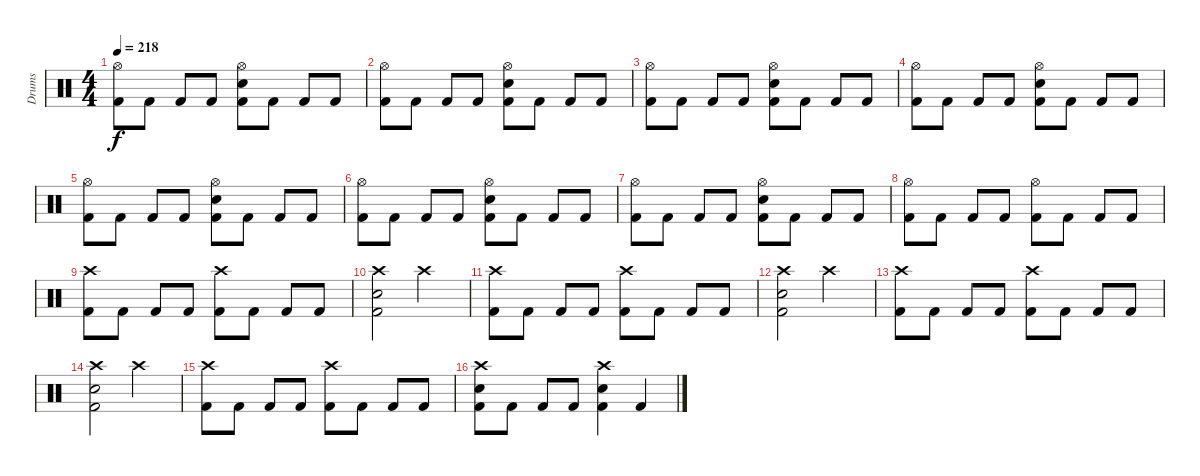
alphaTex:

\track ("Drums" "Drums") {instrument percussion}
\staff {score}
\articulation defaults
\ts (4 4)
\tempo 218
\clef neutral
\ks c
("Hi-Hat (open)" "Kick (hit) 2").8{dy f} "Kick (hit) 2".8 "Kick (hit) 2".8 "Kick (hit) 2".8 ("Hi-Hat (open)" "Electric Snare (hit)" "Kick (hit) 2").8 "Kick (hit) 2".8 "Kick (hit) 2".8 "Kick (hit) 2".8 |
("Hi-Hat (open)" "Kick (hit) 2").8 "Kick (hit) 2".8 "Kick (hit) 2".8 "Kick (hit) 2".8 ("Hi-Hat (open)" "Electric Snare (hit)" "Kick (hit) 2").8 "Kick (hit) 2".8 "Kick (hit) 2".8 "Kick (hit) 2".8 |
("Hi-Hat (open)" "Kick (hit) 2").8 "Kick (hit) 2".8 "Kick (hit) 2".8 "Kick (hit) 2".8 ("Hi-Hat (open)" "Electric Snare (hit)" "Kick (hit) 2").8 "Kick (hit) 2".8 "Kick (hit) 2".8 "Kick (hit) 2".8 |
("Hi-Hat (open)" "Kick (hit) 2").8 "Kick (hit) 2".8 "Kick (hit) 2".8 "Kick (hit) 2".8 ("Hi-Hat (open)" "Electric Snare (hit)" "Kick (hit) 2").8 "Kick (hit) 2".8 "Kick (hit) 2".8 "Kick (hit) 2".8 |
("Hi-Hat (open)" "Kick (hit) 2").8 "Kick (hit) 2".8 "Kick (hit) 2".8 "Kick (hit) 2".8 ("Hi-Hat (open)" "Electric Snare (hit)" "Kick (hit) 2").8 "Kick (hit) 2".8 "Kick (hit) 2".8 "Kick (hit) 2".8 |
("Hi-Hat (open)" "Kick (hit) 2").8 "Kick (hit) 2".8 "Kick (hit) 2".8 "Kick (hit) 2".8 ("Hi-Hat (open)" "Electric Snare (hit)" "Kick (hit) 2").8 "Kick (hit) 2".8 "Kick (hit) 2".8 "Kick (hit) 2".8 |
("Hi-Hat (open)" "Kick (hit) 2").8 "Kick (hit) 2".8 "Kick (hit) 2".8 "Kick (hit) 2".8 ("Hi-Hat (open)" "Electric Snare (hit)" "Kick (hit) 2").8 "Kick (hit) 2".8 "Kick (hit) 2".8 "Kick (hit) 2".8 |
("Hi-Hat (open)" "Kick (hit) 2").8 "Kick (hit) 2".8 "Kick (hit) 2".8 "Kick (hit) 2".8 ("Hi-Hat (open)" "Kick (hit) 2").8 "Kick (hit) 2".8 "Kick (hit) 2".8 "Kick (hit) 2".8 |
("Crash high (hit)" "Kick (hit) 2").8 "Kick (hit) 2".8 "Kick (hit) 2".8 "Kick (hit) 2".8 ("Crash high (hit)" "Kick (hit) 2").8 "Kick (hit) 2".8 "Kick (hit) 2".8 "Kick (hit) 2".8 |
("Crash high (hit)" "Electric Snare (hit)" "Kick (hit) 2").2 "Crash high (hit)".2 |
("Crash high (hit)" "Kick (hit) 2").8 "Kick (hit) 2".8 "Kick (hit) 2".8 "Kick (hit) 2".8 ("Crash high (hit)" "Kick (hit) 2").8 "Kick (hit) 2".8 "Kick (hit) 2".8 "Kick (hit) 2".8 |
("Crash high (hit)" "Electric Snare (hit)" "Kick (hit) 2").2 "Crash high (hit)".2 |
("Crash high (hit)" "Kick (hit) 2").8 "Kick (hit) 2".8 "Kick (hit) 2".8 "Kick (hit) 2".8 ("Crash high (hit)" "Kick (hit) 2").8 "Kick (hit) 2".8 "Kick (hit) 2".8 "Kick (hit) 2".8 |
("Crash high (hit)" "Electric Snare (hit)" "Kick (hit) 2").2 "Crash high (hit)".2 |
("Crash high (hit)" "Kick (hit) 2").8 "Kick (hit) 2".8 "Kick (hit) 2".8 "Kick (hit) 2".8 ("Crash high (hit)" "Kick (hit) 2").8 "Kick (hit) 2".8 "Kick (hit) 2".8 "Kick (hit) 2".8 |
("Crash high (hit)" "Electric Snare (hit)" "Kick (hit) 2").8 "Kick (hit) 2".8 "Kick (hit) 2".8 "Kick (hit) 2".8 ("Crash high (hit)" "Electric Snare (hit)" "Kick (hit) 2").4 "Kick (hit) 2".4
